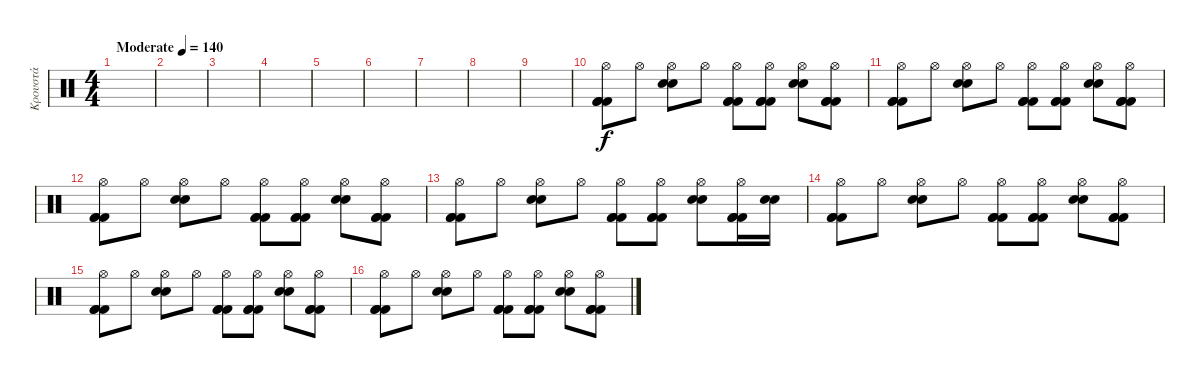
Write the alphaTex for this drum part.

\track ("Κρουστά" "Κρουστά") {instrument percussion}
\staff {score}
\articulation defaults
\ts (4 4)
\tempo (140 "Moderate")
\clef neutral
\ks c
|
|
|
|
|
|
|
|
|
("Kick (hit) 2" "Hi-Hat (open)" "Kick (hit) 2" "Kick (hit) 2").8 "Hi-Hat (open)".8 ("Electric Snare (hit)" "Hi-Hat (open)" "Electric Snare (hit)").8 "Hi-Hat (open)".8 ("Kick (hit) 2" "Kick (hit) 2" "Kick (hit) 2" "Hi-Hat (open)").8 ("Kick (hit) 2" "Kick (hit) 2" "Kick (hit) 2" "Hi-Hat (open)").8 ("Electric Snare (hit)" "Electric Snare (hit)" "Hi-Hat (open)").8 ("Kick (hit) 2" "Kick (hit) 2" "Kick (hit) 2" "Hi-Hat (open)").8 |
("Kick (hit) 2" "Hi-Hat (open)" "Kick (hit) 2" "Kick (hit) 2").8 "Hi-Hat (open)".8 ("Electric Snare (hit)" "Hi-Hat (open)" "Electric Snare (hit)").8 "Hi-Hat (open)".8 ("Kick (hit) 2" "Kick (hit) 2" "Kick (hit) 2" "Hi-Hat (open)").8 ("Kick (hit) 2" "Kick (hit) 2" "Kick (hit) 2" "Hi-Hat (open)").8 ("Electric Snare (hit)" "Electric Snare (hit)" "Hi-Hat (open)").8 ("Kick (hit) 2" "Kick (hit) 2" "Kick (hit) 2" "Hi-Hat (open)").8 |
("Kick (hit) 2" "Hi-Hat (open)" "Kick (hit) 2" "Kick (hit) 2").8 "Hi-Hat (open)".8 ("Electric Snare (hit)" "Hi-Hat (open)" "Electric Snare (hit)").8 "Hi-Hat (open)".8 ("Kick (hit) 2" "Kick (hit) 2" "Kick (hit) 2" "Hi-Hat (open)").8 ("Kick (hit) 2" "Kick (hit) 2" "Kick (hit) 2" "Hi-Hat (open)").8 ("Electric Snare (hit)" "Electric Snare (hit)" "Hi-Hat (open)").8 ("Kick (hit) 2" "Kick (hit) 2" "Kick (hit) 2" "Hi-Hat (open)").8 |
("Kick (hit) 2" "Hi-Hat (open)" "Kick (hit) 2" "Kick (hit) 2").8 "Hi-Hat (open)".8 ("Electric Snare (hit)" "Hi-Hat (open)" "Electric Snare (hit)").8 "Hi-Hat (open)".8 ("Kick (hit) 2" "Kick (hit) 2" "Kick (hit) 2" "Hi-Hat (open)").8 ("Kick (hit) 2" "Kick (hit) 2" "Kick (hit) 2" "Hi-Hat (open)").8 ("Electric Snare (hit)" "Electric Snare (hit)" "Hi-Hat (open)").8 ("Kick (hit) 2" "Kick (hit) 2" "Kick (hit) 2" "Hi-Hat (open)").16 ("Electric Snare (hit)" "Electric Snare (hit)").16 |
("Kick (hit) 2" "Hi-Hat (open)" "Kick (hit) 2" "Kick (hit) 2").8 "Hi-Hat (open)".8 ("Electric Snare (hit)" "Hi-Hat (open)" "Electric Snare (hit)").8 "Hi-Hat (open)".8 ("Kick (hit) 2" "Kick (hit) 2" "Kick (hit) 2" "Hi-Hat (open)").8 ("Kick (hit) 2" "Kick (hit) 2" "Kick (hit) 2" "Hi-Hat (open)").8 ("Electric Snare (hit)" "Electric Snare (hit)" "Hi-Hat (open)").8 ("Kick (hit) 2" "Kick (hit) 2" "Kick (hit) 2" "Hi-Hat (open)").8 |
("Kick (hit) 2" "Hi-Hat (open)" "Kick (hit) 2" "Kick (hit) 2").8 "Hi-Hat (open)".8 ("Electric Snare (hit)" "Hi-Hat (open)" "Electric Snare (hit)").8 "Hi-Hat (open)".8 ("Kick (hit) 2" "Kick (hit) 2" "Kick (hit) 2" "Hi-Hat (open)").8 ("Kick (hit) 2" "Kick (hit) 2" "Kick (hit) 2" "Hi-Hat (open)").8 ("Electric Snare (hit)" "Electric Snare (hit)" "Hi-Hat (open)").8 ("Kick (hit) 2" "Kick (hit) 2" "Kick (hit) 2" "Hi-Hat (open)").8 |
("Kick (hit) 2" "Hi-Hat (open)" "Kick (hit) 2" "Kick (hit) 2").8 "Hi-Hat (open)".8 ("Electric Snare (hit)" "Hi-Hat (open)" "Electric Snare (hit)").8 "Hi-Hat (open)".8 ("Kick (hit) 2" "Kick (hit) 2" "Kick (hit) 2" "Hi-Hat (open)").8 ("Kick (hit) 2" "Kick (hit) 2" "Kick (hit) 2" "Hi-Hat (open)").8 ("Electric Snare (hit)" "Electric Snare (hit)" "Hi-Hat (open)").8 ("Kick (hit) 2" "Kick (hit) 2" "Kick (hit) 2" "Hi-Hat (open)").8
